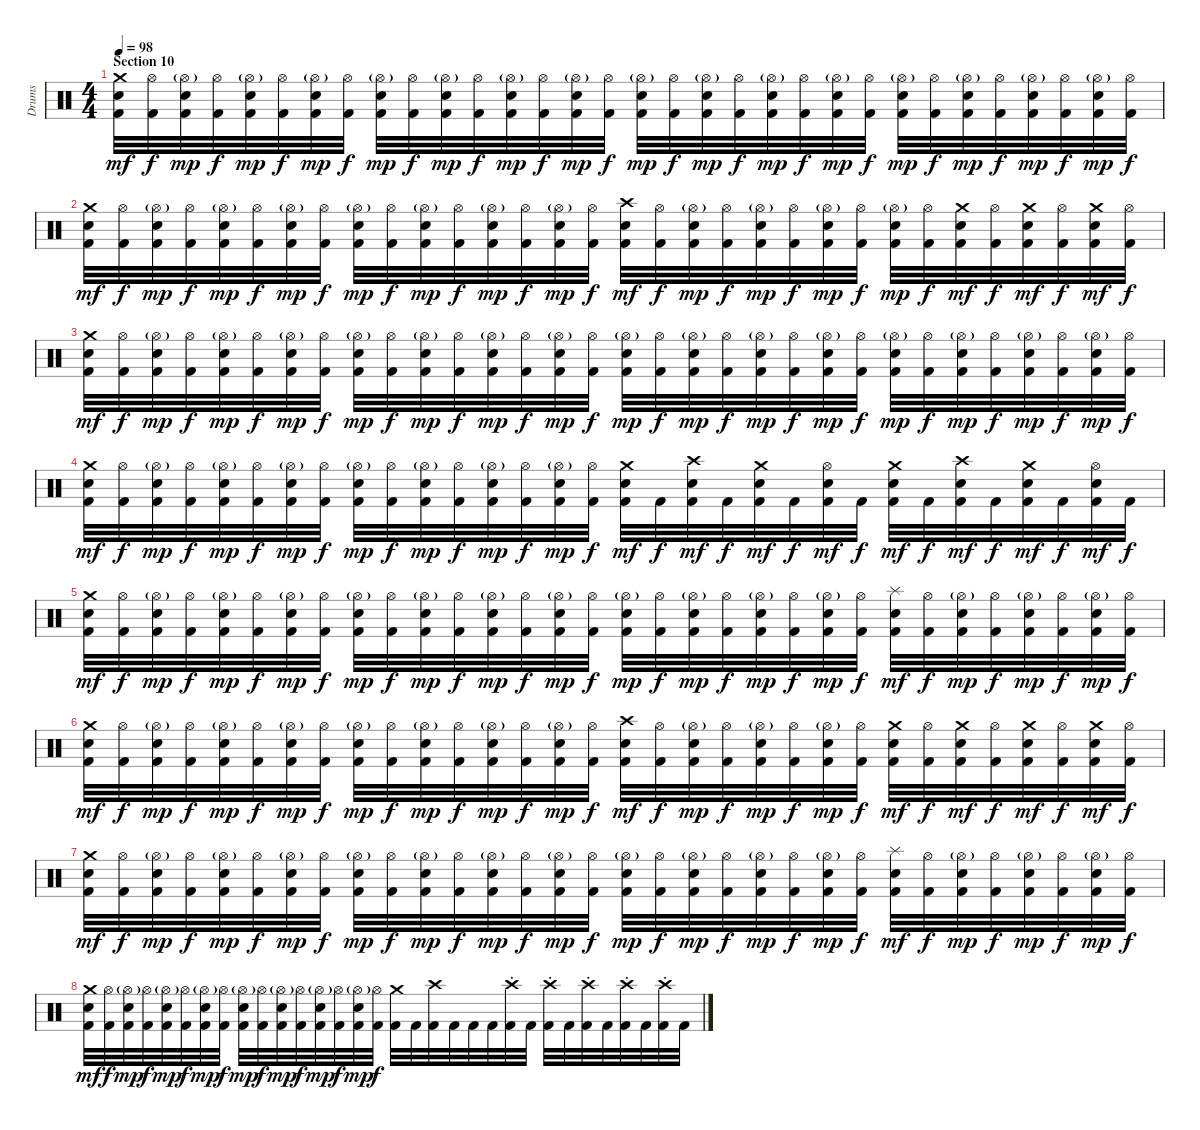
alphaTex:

\track ("Drums" "Drums") {instrument percussion}
\staff {score}
\articulation defaults
\ts (4 4)
\section ("" "Section 10")
\tempo 98
\clef neutral
\ks c
("Crash medium (hit)" "Snare (hit) 2" "Kick (hit) 2").32{dy mf} ("Hi-Hat (open)" "Kick (hit) 2").32{dy f} ("Snare (hit) 2" "Hi-Hat (open)"{g} "Kick (hit) 2").32{dy mp} ("Hi-Hat (open)" "Kick (hit) 2").32{dy f} ("Snare (hit) 2" "Hi-Hat (open)"{g} "Kick (hit) 2").32{dy mp} ("Hi-Hat (open)" "Kick (hit) 2").32{dy f} ("Snare (hit) 2" "Hi-Hat (open)"{g} "Kick (hit) 2").32{dy mp} ("Hi-Hat (open)" "Kick (hit) 2").32{dy f} ("Snare (hit) 2" "Hi-Hat (open)"{g} "Kick (hit) 2").32{dy mp} ("Hi-Hat (open)" "Kick (hit) 2").32{dy f} ("Snare (hit) 2" "Hi-Hat (open)"{g} "Kick (hit) 2").32{dy mp} ("Hi-Hat (open)" "Kick (hit) 2").32{dy f} ("Snare (hit) 2" "Hi-Hat (open)"{g} "Kick (hit) 2").32{dy mp} ("Hi-Hat (open)" "Kick (hit) 2").32{dy f} ("Snare (hit) 2" "Hi-Hat (open)"{g} "Kick (hit) 2").32{dy mp} ("Hi-Hat (open)" "Kick (hit) 2").32{dy f} ("Snare (hit) 2" "Hi-Hat (open)"{g} "Kick (hit) 2").32{dy mp} ("Hi-Hat (open)" "Kick (hit) 2").32{dy f} ("Snare (hit) 2" "Hi-Hat (open)"{g} "Kick (hit) 2").32{dy mp} ("Hi-Hat (open)" "Kick (hit) 2").32{dy f} ("Snare (hit) 2" "Hi-Hat (open)"{g} "Kick (hit) 2").32{dy mp} ("Hi-Hat (open)" "Kick (hit) 2").32{dy f} ("Snare (hit) 2" "Hi-Hat (open)"{g} "Kick (hit) 2").32{dy mp} ("Hi-Hat (open)" "Kick (hit) 2").32{dy f} ("Snare (hit) 2" "Hi-Hat (open)"{g} "Kick (hit) 2").32{dy mp} ("Hi-Hat (open)" "Kick (hit) 2").32{dy f} ("Snare (hit) 2" "Hi-Hat (open)"{g} "Kick (hit) 2").32{dy mp} ("Hi-Hat (open)" "Kick (hit) 2").32{dy f} ("Snare (hit) 2" "Hi-Hat (open)"{g} "Kick (hit) 2").32{dy mp} ("Hi-Hat (open)" "Kick (hit) 2").32{dy f} ("Snare (hit) 2" "Hi-Hat (open)"{g} "Kick (hit) 2").32{dy mp} ("Hi-Hat (open)" "Kick (hit) 2").32{dy f} |
("Crash medium (hit)" "Snare (hit) 2" "Kick (hit) 2").32{dy mf} ("Hi-Hat (open)" "Kick (hit) 2").32{dy f} ("Snare (hit) 2" "Hi-Hat (open)"{g} "Kick (hit) 2").32{dy mp} ("Hi-Hat (open)" "Kick (hit) 2").32{dy f} ("Snare (hit) 2" "Hi-Hat (open)"{g} "Kick (hit) 2").32{dy mp} ("Hi-Hat (open)" "Kick (hit) 2").32{dy f} ("Snare (hit) 2" "Hi-Hat (open)"{g} "Kick (hit) 2").32{dy mp} ("Hi-Hat (open)" "Kick (hit) 2").32{dy f} ("Snare (hit) 2" "Hi-Hat (open)"{g} "Kick (hit) 2").32{dy mp} ("Hi-Hat (open)" "Kick (hit) 2").32{dy f} ("Snare (hit) 2" "Hi-Hat (open)"{g} "Kick (hit) 2").32{dy mp} ("Hi-Hat (open)" "Kick (hit) 2").32{dy f} ("Snare (hit) 2" "Hi-Hat (open)"{g} "Kick (hit) 2").32{dy mp} ("Hi-Hat (open)" "Kick (hit) 2").32{dy f} ("Snare (hit) 2" "Hi-Hat (open)"{g} "Kick (hit) 2").32{dy mp} ("Hi-Hat (open)" "Kick (hit) 2").32{dy f} ("Crash high (hit)" "Snare (hit) 2" "Kick (hit) 2").32{dy mf} ("Hi-Hat (open)" "Kick (hit) 2").32{dy f} ("Snare (hit) 2" "Hi-Hat (open)"{g} "Kick (hit) 2").32{dy mp} ("Hi-Hat (open)" "Kick (hit) 2").32{dy f} ("Snare (hit) 2" "Hi-Hat (open)"{g} "Kick (hit) 2").32{dy mp} ("Hi-Hat (open)" "Kick (hit) 2").32{dy f} ("Snare (hit) 2" "Hi-Hat (open)"{g} "Kick (hit) 2").32{dy mp} ("Hi-Hat (open)" "Kick (hit) 2").32{dy f} ("Snare (hit) 2" "Hi-Hat (open)"{g} "Kick (hit) 2").32{dy mp} ("Hi-Hat (open)" "Kick (hit) 2").32{dy f} ("Snare (hit) 2" "Crash medium (hit)" "Kick (hit) 2").32{dy mf} ("Hi-Hat (open)" "Kick (hit) 2").32{dy f} ("Snare (hit) 2" "Crash medium (hit)" "Kick (hit) 2").32{dy mf} ("Hi-Hat (open)" "Kick (hit) 2").32{dy f} ("Snare (hit) 2" "Crash medium (hit)" "Kick (hit) 2").32{dy mf} ("Hi-Hat (open)" "Kick (hit) 2").32{dy f} |
("Crash medium (hit)" "Snare (hit) 2" "Kick (hit) 2").32{dy mf} ("Hi-Hat (open)" "Kick (hit) 2").32{dy f} ("Snare (hit) 2" "Hi-Hat (open)"{g} "Kick (hit) 2").32{dy mp} ("Hi-Hat (open)" "Kick (hit) 2").32{dy f} ("Snare (hit) 2" "Hi-Hat (open)"{g} "Kick (hit) 2").32{dy mp} ("Hi-Hat (open)" "Kick (hit) 2").32{dy f} ("Snare (hit) 2" "Hi-Hat (open)"{g} "Kick (hit) 2").32{dy mp} ("Hi-Hat (open)" "Kick (hit) 2").32{dy f} ("Snare (hit) 2" "Hi-Hat (open)"{g} "Kick (hit) 2").32{dy mp} ("Hi-Hat (open)" "Kick (hit) 2").32{dy f} ("Snare (hit) 2" "Hi-Hat (open)"{g} "Kick (hit) 2").32{dy mp} ("Hi-Hat (open)" "Kick (hit) 2").32{dy f} ("Snare (hit) 2" "Hi-Hat (open)"{g} "Kick (hit) 2").32{dy mp} ("Hi-Hat (open)" "Kick (hit) 2").32{dy f} ("Snare (hit) 2" "Hi-Hat (open)"{g} "Kick (hit) 2").32{dy mp} ("Hi-Hat (open)" "Kick (hit) 2").32{dy f} ("Snare (hit) 2" "Hi-Hat (open)"{g} "Kick (hit) 2").32{dy mp} ("Hi-Hat (open)" "Kick (hit) 2").32{dy f} ("Snare (hit) 2" "Hi-Hat (open)"{g} "Kick (hit) 2").32{dy mp} ("Hi-Hat (open)" "Kick (hit) 2").32{dy f} ("Snare (hit) 2" "Hi-Hat (open)"{g} "Kick (hit) 2").32{dy mp} ("Hi-Hat (open)" "Kick (hit) 2").32{dy f} ("Snare (hit) 2" "Hi-Hat (open)"{g} "Kick (hit) 2").32{dy mp} ("Hi-Hat (open)" "Kick (hit) 2").32{dy f} ("Snare (hit) 2" "Hi-Hat (open)"{g} "Kick (hit) 2").32{dy mp} ("Hi-Hat (open)" "Kick (hit) 2").32{dy f} ("Snare (hit) 2" "Hi-Hat (open)"{g} "Kick (hit) 2").32{dy mp} ("Hi-Hat (open)" "Kick (hit) 2").32{dy f} ("Snare (hit) 2" "Hi-Hat (open)"{g} "Kick (hit) 2").32{dy mp} ("Hi-Hat (open)" "Kick (hit) 2").32{dy f} ("Snare (hit) 2" "Hi-Hat (open)"{g} "Kick (hit) 2").32{dy mp} ("Hi-Hat (open)" "Kick (hit) 2").32{dy f} |
("Crash medium (hit)" "Snare (hit) 2" "Kick (hit) 2").32{dy mf} ("Hi-Hat (open)" "Kick (hit) 2").32{dy f} ("Snare (hit) 2" "Hi-Hat (open)"{g} "Kick (hit) 2").32{dy mp} ("Hi-Hat (open)" "Kick (hit) 2").32{dy f} ("Snare (hit) 2" "Hi-Hat (open)"{g} "Kick (hit) 2").32{dy mp} ("Hi-Hat (open)" "Kick (hit) 2").32{dy f} ("Snare (hit) 2" "Hi-Hat (open)"{g} "Kick (hit) 2").32{dy mp} ("Hi-Hat (open)" "Kick (hit) 2").32{dy f} ("Snare (hit) 2" "Hi-Hat (open)"{g} "Kick (hit) 2").32{dy mp} ("Hi-Hat (open)" "Kick (hit) 2").32{dy f} ("Snare (hit) 2" "Hi-Hat (open)"{g} "Kick (hit) 2").32{dy mp} ("Hi-Hat (open)" "Kick (hit) 2").32{dy f} ("Snare (hit) 2" "Hi-Hat (open)"{g} "Kick (hit) 2").32{dy mp} ("Hi-Hat (open)" "Kick (hit) 2").32{dy f} ("Snare (hit) 2" "Hi-Hat (open)"{g} "Kick (hit) 2").32{dy mp} ("Hi-Hat (open)" "Kick (hit) 2").32{dy f} ("Crash medium (hit)" "Snare (hit) 2" "Kick (hit) 2").32{dy mf} "Kick (hit) 2".32{dy f} ("Crash high (hit)" "Snare (hit) 2" "Kick (hit) 2").32{dy mf} "Kick (hit) 2".32{dy f} ("Crash medium (hit)" "Snare (hit) 2" "Kick (hit) 2").32{dy mf} "Kick (hit) 2".32{dy f} ("Snare (hit) 2" "Hi-Hat (open)" "Kick (hit) 2").32{dy mf} "Kick (hit) 2".32{dy f} ("Crash medium (hit)" "Snare (hit) 2" "Kick (hit) 2").32{dy mf} "Kick (hit) 2".32{dy f} ("Crash high (hit)" "Snare (hit) 2" "Kick (hit) 2").32{dy mf} "Kick (hit) 2".32{dy f} ("Crash medium (hit)" "Snare (hit) 2" "Kick (hit) 2").32{dy mf} "Kick (hit) 2".32{dy f} ("Snare (hit) 2" "Hi-Hat (open)" "Kick (hit) 2").32{dy mf} "Kick (hit) 2".32{dy f} |
("Crash medium (hit)" "Snare (hit) 2" "Kick (hit) 2").32{dy mf} ("Hi-Hat (open)" "Kick (hit) 2").32{dy f} ("Snare (hit) 2" "Hi-Hat (open)"{g} "Kick (hit) 2").32{dy mp} ("Hi-Hat (open)" "Kick (hit) 2").32{dy f} ("Snare (hit) 2" "Hi-Hat (open)"{g} "Kick (hit) 2").32{dy mp} ("Hi-Hat (open)" "Kick (hit) 2").32{dy f} ("Snare (hit) 2" "Hi-Hat (open)"{g} "Kick (hit) 2").32{dy mp} ("Hi-Hat (open)" "Kick (hit) 2").32{dy f} ("Snare (hit) 2" "Hi-Hat (open)"{g} "Kick (hit) 2").32{dy mp} ("Hi-Hat (open)" "Kick (hit) 2").32{dy f} ("Snare (hit) 2" "Hi-Hat (open)"{g} "Kick (hit) 2").32{dy mp} ("Hi-Hat (open)" "Kick (hit) 2").32{dy f} ("Snare (hit) 2" "Hi-Hat (open)"{g} "Kick (hit) 2").32{dy mp} ("Hi-Hat (open)" "Kick (hit) 2").32{dy f} ("Snare (hit) 2" "Hi-Hat (open)"{g} "Kick (hit) 2").32{dy mp} ("Hi-Hat (open)" "Kick (hit) 2").32{dy f} ("Snare (hit) 2" "Hi-Hat (open)"{g} "Kick (hit) 2").32{dy mp} ("Hi-Hat (open)" "Kick (hit) 2").32{dy f} ("Snare (hit) 2" "Hi-Hat (open)"{g} "Kick (hit) 2").32{dy mp} ("Hi-Hat (open)" "Kick (hit) 2").32{dy f} ("Snare (hit) 2" "Hi-Hat (open)"{g} "Kick (hit) 2").32{dy mp} ("Hi-Hat (open)" "Kick (hit) 2").32{dy f} ("Snare (hit) 2" "Hi-Hat (open)"{g} "Kick (hit) 2").32{dy mp} ("Hi-Hat (open)" "Kick (hit) 2").32{dy f} ("Snare (hit) 2" "Splash (hit)" "Kick (hit) 2").32{dy mf} ("Hi-Hat (open)" "Kick (hit) 2").32{dy f} ("Snare (hit) 2" "Hi-Hat (open)"{g} "Kick (hit) 2").32{dy mp} ("Hi-Hat (open)" "Kick (hit) 2").32{dy f} ("Snare (hit) 2" "Hi-Hat (open)"{g} "Kick (hit) 2").32{dy mp} ("Hi-Hat (open)" "Kick (hit) 2").32{dy f} ("Snare (hit) 2" "Hi-Hat (open)"{g} "Kick (hit) 2").32{dy mp} ("Hi-Hat (open)" "Kick (hit) 2").32{dy f} |
("Crash medium (hit)" "Snare (hit) 2" "Kick (hit) 2").32{dy mf} ("Hi-Hat (open)" "Kick (hit) 2").32{dy f} ("Snare (hit) 2" "Hi-Hat (open)"{g} "Kick (hit) 2").32{dy mp} ("Hi-Hat (open)" "Kick (hit) 2").32{dy f} ("Snare (hit) 2" "Hi-Hat (open)"{g} "Kick (hit) 2").32{dy mp} ("Hi-Hat (open)" "Kick (hit) 2").32{dy f} ("Snare (hit) 2" "Hi-Hat (open)"{g} "Kick (hit) 2").32{dy mp} ("Hi-Hat (open)" "Kick (hit) 2").32{dy f} ("Snare (hit) 2" "Hi-Hat (open)"{g} "Kick (hit) 2").32{dy mp} ("Hi-Hat (open)" "Kick (hit) 2").32{dy f} ("Snare (hit) 2" "Hi-Hat (open)"{g} "Kick (hit) 2").32{dy mp} ("Hi-Hat (open)" "Kick (hit) 2").32{dy f} ("Snare (hit) 2" "Hi-Hat (open)"{g} "Kick (hit) 2").32{dy mp} ("Hi-Hat (open)" "Kick (hit) 2").32{dy f} ("Snare (hit) 2" "Hi-Hat (open)"{g} "Kick (hit) 2").32{dy mp} ("Hi-Hat (open)" "Kick (hit) 2").32{dy f} ("Crash high (hit)" "Snare (hit) 2" "Kick (hit) 2").32{dy mf} ("Hi-Hat (open)" "Kick (hit) 2").32{dy f} ("Snare (hit) 2" "Hi-Hat (open)"{g} "Kick (hit) 2").32{dy mp} ("Hi-Hat (open)" "Kick (hit) 2").32{dy f} ("Snare (hit) 2" "Hi-Hat (open)"{g} "Kick (hit) 2").32{dy mp} ("Hi-Hat (open)" "Kick (hit) 2").32{dy f} ("Snare (hit) 2" "Hi-Hat (open)"{g} "Kick (hit) 2").32{dy mp} ("Hi-Hat (open)" "Kick (hit) 2").32{dy f} ("Snare (hit) 2" "Crash medium (hit)" "Kick (hit) 2").32{dy mf} ("Hi-Hat (open)" "Kick (hit) 2").32{dy f} ("Snare (hit) 2" "Crash medium (hit)" "Kick (hit) 2").32{dy mf} ("Hi-Hat (open)" "Kick (hit) 2").32{dy f} ("Snare (hit) 2" "Crash medium (hit)" "Kick (hit) 2").32{dy mf} ("Hi-Hat (open)" "Kick (hit) 2").32{dy f} ("Snare (hit) 2" "Crash medium (hit)" "Kick (hit) 2").32{dy mf} ("Hi-Hat (open)" "Kick (hit) 2").32{dy f} |
("Crash medium (hit)" "Snare (hit) 2" "Kick (hit) 2").32{dy mf} ("Hi-Hat (open)" "Kick (hit) 2").32{dy f} ("Snare (hit) 2" "Hi-Hat (open)"{g} "Kick (hit) 2").32{dy mp} ("Hi-Hat (open)" "Kick (hit) 2").32{dy f} ("Snare (hit) 2" "Hi-Hat (open)"{g} "Kick (hit) 2").32{dy mp} ("Hi-Hat (open)" "Kick (hit) 2").32{dy f} ("Snare (hit) 2" "Hi-Hat (open)"{g} "Kick (hit) 2").32{dy mp} ("Hi-Hat (open)" "Kick (hit) 2").32{dy f} ("Snare (hit) 2" "Hi-Hat (open)"{g} "Kick (hit) 2").32{dy mp} ("Hi-Hat (open)" "Kick (hit) 2").32{dy f} ("Snare (hit) 2" "Hi-Hat (open)"{g} "Kick (hit) 2").32{dy mp} ("Hi-Hat (open)" "Kick (hit) 2").32{dy f} ("Snare (hit) 2" "Hi-Hat (open)"{g} "Kick (hit) 2").32{dy mp} ("Hi-Hat (open)" "Kick (hit) 2").32{dy f} ("Snare (hit) 2" "Hi-Hat (open)"{g} "Kick (hit) 2").32{dy mp} ("Hi-Hat (open)" "Kick (hit) 2").32{dy f} ("Snare (hit) 2" "Hi-Hat (open)"{g} "Kick (hit) 2").32{dy mp} ("Hi-Hat (open)" "Kick (hit) 2").32{dy f} ("Snare (hit) 2" "Hi-Hat (open)"{g} "Kick (hit) 2").32{dy mp} ("Hi-Hat (open)" "Kick (hit) 2").32{dy f} ("Snare (hit) 2" "Hi-Hat (open)"{g} "Kick (hit) 2").32{dy mp} ("Hi-Hat (open)" "Kick (hit) 2").32{dy f} ("Snare (hit) 2" "Hi-Hat (open)"{g} "Kick (hit) 2").32{dy mp} ("Hi-Hat (open)" "Kick (hit) 2").32{dy f} ("Snare (hit) 2" "Splash (hit)" "Kick (hit) 2").32{dy mf} ("Hi-Hat (open)" "Kick (hit) 2").32{dy f} ("Snare (hit) 2" "Hi-Hat (open)"{g} "Kick (hit) 2").32{dy mp} ("Hi-Hat (open)" "Kick (hit) 2").32{dy f} ("Snare (hit) 2" "Hi-Hat (open)"{g} "Kick (hit) 2").32{dy mp} ("Hi-Hat (open)" "Kick (hit) 2").32{dy f} ("Snare (hit) 2" "Hi-Hat (open)"{g} "Kick (hit) 2").32{dy mp} ("Hi-Hat (open)" "Kick (hit) 2").32{dy f} |
("Crash medium (hit)" "Snare (hit) 2" "Kick (hit) 2").32{dy mf} ("Hi-Hat (open)" "Kick (hit) 2").32{dy f} ("Snare (hit) 2" "Hi-Hat (open)"{g} "Kick (hit) 2").32{dy mp} ("Hi-Hat (open)" "Kick (hit) 2").32{dy f} ("Snare (hit) 2" "Hi-Hat (open)"{g} "Kick (hit) 2").32{dy mp} ("Hi-Hat (open)" "Kick (hit) 2").32{dy f} ("Snare (hit) 2" "Hi-Hat (open)"{g} "Kick (hit) 2").32{dy mp} ("Hi-Hat (open)" "Kick (hit) 2").32{dy f} ("Snare (hit) 2" "Hi-Hat (open)"{g} "Kick (hit) 2").32{dy mp} ("Hi-Hat (open)" "Kick (hit) 2").32{dy f} ("Snare (hit) 2" "Hi-Hat (open)"{g} "Kick (hit) 2").32{dy mp} ("Hi-Hat (open)" "Kick (hit) 2").32{dy f} ("Snare (hit) 2" "Hi-Hat (open)"{g} "Kick (hit) 2").32{dy mp} ("Hi-Hat (open)" "Kick (hit) 2").32{dy f} ("Snare (hit) 2" "Hi-Hat (open)"{g} "Kick (hit) 2").32{dy mp} ("Hi-Hat (open)" "Kick (hit) 2").32{dy f} ("Crash medium (hit)" "Kick (hit) 2").32 "Kick (hit) 2".32 ("Crash high (hit)" "Kick (hit) 2").32 "Kick (hit) 2".32 "Kick (hit) 2".32 "Kick (hit) 2".32 ("Crash high (hit)"{st} "Kick (hit) 2").32 "Kick (hit) 2".32 ("Crash high (hit)"{st} "Kick (hit) 2").32 "Kick (hit) 2".32 ("Crash high (hit)"{st} "Kick (hit) 2").32 "Kick (hit) 2".32 ("Crash high (hit)"{st} "Kick (hit) 2").32 "Kick (hit) 2".32 ("Crash high (hit)"{st} "Kick (hit) 2").32 "Kick (hit) 2".32
